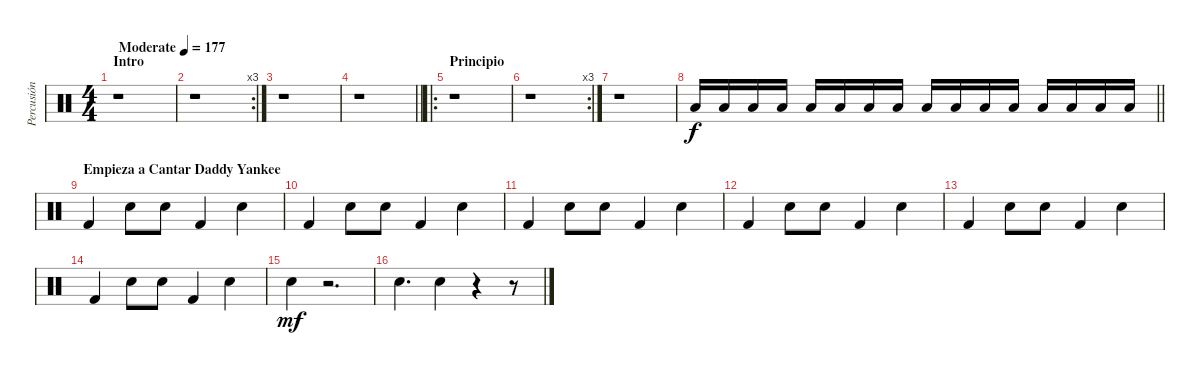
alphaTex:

\track ("Percusión" "Percusión") {instrument percussion}
\staff {score}
\articulation defaults
\ts (4 4)
\section ("" "Intro")
\tempo (177 "Moderate")
\clef neutral
\ks c
r.1{dy f} |
\rc 3
r.1 |
r.1 |
\barLineRight lightlight
r.1 |
\ro
\section ("" "Principio")
r.1 |
\rc 3
r.1 |
r.1 |
\barLineRight lightlight "Low Tom (hit)".16{volume 16 balance 15} "Low Tom (hit)".16 "Low Tom (hit)".16 "Low Tom (hit)".16 "Low Tom (hit)".16 "Low Tom (hit)".16 "Low Tom (hit)".16 "Low Tom (hit)".16 "Low Tom (hit)".16 "Low Tom (hit)".16 "Low Tom (hit)".16 "Low Tom (hit)".16 "Low Tom (hit)".16 "Low Tom (hit)".16 "Low Tom (hit)".16 "Low Tom (hit)".16
|
\section ("" "Empieza a Cantar Daddy Yankee")
"Kick (hit) 2".4{balance 8} "Electric Snare (hit)".8 "Electric Snare (hit)".8 "Kick (hit) 2".4 "Electric Snare (hit)".4 |
"Kick (hit) 2".4 "Electric Snare (hit)".8 "Electric Snare (hit)".8 "Kick (hit) 2".4 "Electric Snare (hit)".4 |
"Kick (hit) 2".4 "Electric Snare (hit)".8 "Electric Snare (hit)".8 "Kick (hit) 2".4 "Electric Snare (hit)".4 |
"Kick (hit) 2".4 "Electric Snare (hit)".8 "Electric Snare (hit)".8 "Kick (hit) 2".4 "Electric Snare (hit)".4 |
"Kick (hit) 2".4 "Electric Snare (hit)".8 "Electric Snare (hit)".8 "Kick (hit) 2".4 "Electric Snare (hit)".4 |
"Kick (hit) 2".4 "Electric Snare (hit)".8 "Electric Snare (hit)".8 "Kick (hit) 2".4 "Electric Snare (hit)".4 |
"Snare (hit) 2".4{dy mf} r.2{d} |
"Snare (hit) 2".4{d} "Snare (hit) 2".4 r.4 r.8
